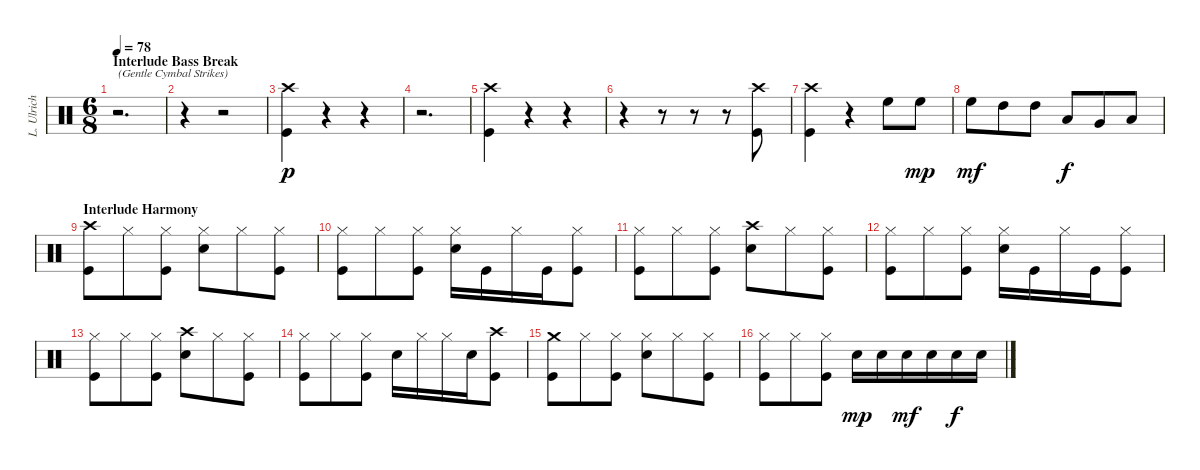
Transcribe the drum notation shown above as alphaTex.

\track ("L. Ulrich" "L. Ulrich") {instrument percussion}
\staff {score}
\articulation defaults
\ts (6 8)
\section ("" "Interlude Bass Break")
\tempo 78
\clef neutral
\ks c
r.2{d txt "(Gentle Cymbal Strikes)" dy ppp} |
r.4 r.2 |
("Crash high (hit)" "Kick (hit)").4{dy p} r.4 r.4 |
r.2{d} |
("Crash high (hit)" "Kick (hit)").4 r.4 r.4 |
r.4 r.8 r.8 r.8 ("Crash high (hit)" "Kick (hit)").8 |
("Crash high (hit)" "Kick (hit)").4 r.4 "High Floor Tom (hit)".8 "High Floor Tom (hit)".8{dy mp} |
"High Floor Tom (hit)".8{dy mf} "High Tom (hit)".8 "High Tom (hit)".8 "Low Tom (hit)".8{dy f} "Very Low Tom (hit)".8 "Low Floor Tom (hit)".8 |
\section ("" "Interlude Harmony")
("Crash high (hit)" "Kick (hit)").8 "Hi-Hat (closed)".8 ("Hi-Hat (closed)" "Kick (hit)").8 ("Hi-Hat (closed)" "Snare (hit) 2").8 "Hi-Hat (closed)".8 ("Hi-Hat (closed)" "Kick (hit)").8 |
("Hi-Hat (closed)" "Kick (hit)").8 "Hi-Hat (closed)".8 ("Hi-Hat (closed)" "Kick (hit)").8 ("Hi-Hat (closed)" "Snare (hit) 2").16 "Kick (hit)".16 "Hi-Hat (closed)".16 "Kick (hit)".16 ("Hi-Hat (closed)" "Kick (hit)").8 |
("Hi-Hat (closed)" "Kick (hit)").8 "Hi-Hat (closed)".8 ("Hi-Hat (closed)" "Kick (hit)").8 ("Crash high (hit)" "Snare (hit) 2").8 "Hi-Hat (closed)".8 ("Hi-Hat (closed)" "Kick (hit)").8 |
("Hi-Hat (closed)" "Kick (hit)").8 "Hi-Hat (closed)".8 ("Hi-Hat (closed)" "Kick (hit)").8 ("Hi-Hat (closed)" "Snare (hit) 2").16 "Kick (hit)".16 "Hi-Hat (closed)".16 "Kick (hit)".16 ("Hi-Hat (closed)" "Kick (hit)").8 |
("Hi-Hat (closed)" "Kick (hit)").8 "Hi-Hat (closed)".8 ("Hi-Hat (closed)" "Kick (hit)").8 ("Crash high (hit)" "Snare (hit) 2").8 "Hi-Hat (closed)".8 ("Hi-Hat (closed)" "Kick (hit)").8 |
("Hi-Hat (closed)" "Kick (hit)").8 "Hi-Hat (closed)".8 ("Hi-Hat (closed)" "Kick (hit)").8 "Snare (hit) 2".16 "Hi-Hat (closed)".16 "Hi-Hat (closed)".16 "Snare (hit) 2".16 ("Crash high (hit)" "Kick (hit)").8 |
("Crash medium (hit)" "Kick (hit)").8 "Hi-Hat (closed)".8 ("Hi-Hat (closed)" "Kick (hit)").8 ("Hi-Hat (closed)" "Snare (hit) 2").8 "Hi-Hat (closed)".8 ("Hi-Hat (closed)" "Kick (hit)").8 |
("Hi-Hat (closed)" "Kick (hit)").8 "Hi-Hat (closed)".8 ("Hi-Hat (closed)" "Kick (hit)").8 "Snare (hit) 2".16{dy mp} "Snare (hit) 2".16 "Snare (hit) 2".16{dy mf} "Snare (hit) 2".16 "Snare (hit) 2".16{dy f} "Snare (hit) 2".16
